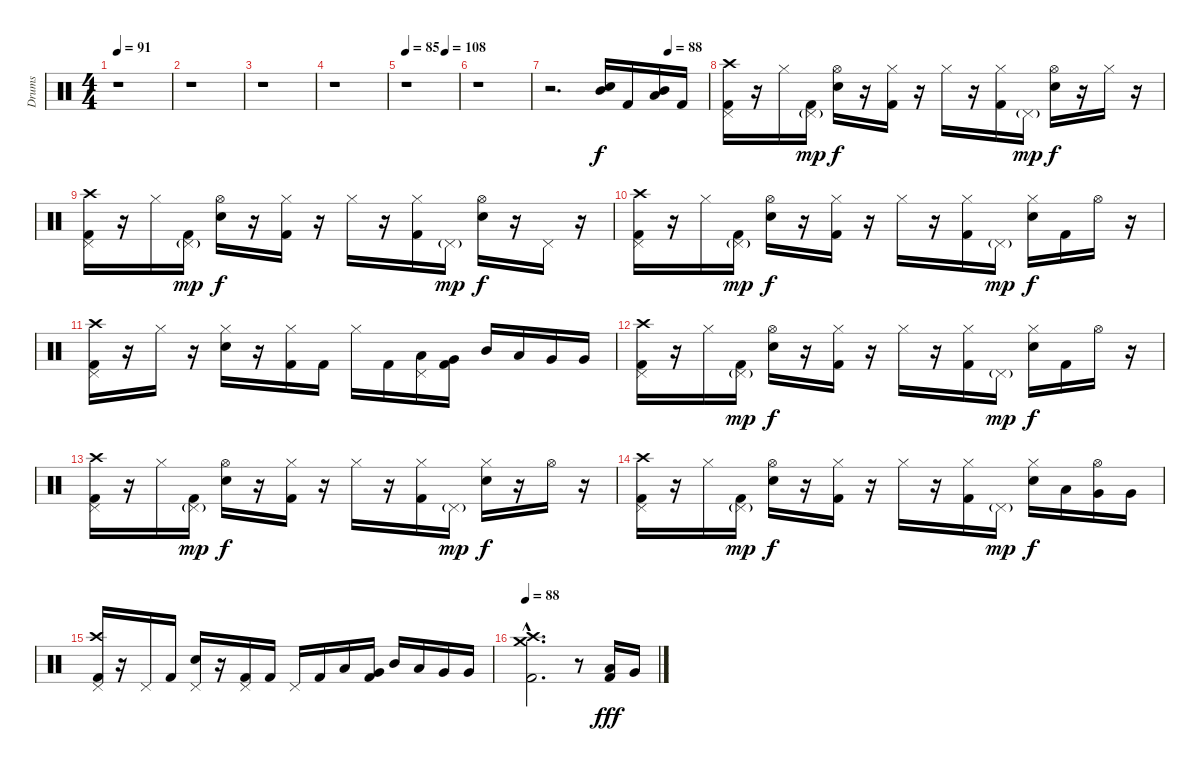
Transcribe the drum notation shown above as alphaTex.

\track ("Drums" "Drums") {instrument percussion}
\staff {score}
\articulation defaults
\ts (4 4)
\tempo 91
\tempo 108
\tempo 91
\clef neutral
\ks c
r.1{dy f} |
r.1 |
r.1 |
r.1 |
\tempo 85
\tempo (108 0.75)
r.1 |
r.1 |
\tempo (88 0.75)
r.2{d} ("Electric Snare (hit)" "Mid Tom (hit)").16 "Kick (hit) 2".16 ("Low Tom (hit)" "Mid Tom (hit)").16 "Kick (hit) 2".16 |
("Crash high (hit)" "Pedal Hi-Hat (hit)" "Kick (hit) 2").16 r.16 "Hi-Hat (closed)".16 ("Pedal Hi-Hat (hit)"{g} "Kick (hit) 2").16{dy mp} ("Electric Snare (hit)" "Hi-Hat (open)").16{dy f} r.16 ("Hi-Hat (closed)" "Kick (hit) 2").16 r.16 "Hi-Hat (closed)".16 r.16 ("Hi-Hat (closed)" "Kick (hit) 2").16 "Pedal Hi-Hat (hit)"{g}.16{dy mp} ("Electric Snare (hit)" "Hi-Hat (open)").16{dy f} r.16 "Hi-Hat (closed)".16 r.16 |
("Crash high (hit)" "Pedal Hi-Hat (hit)" "Kick (hit) 2").16 r.16 "Hi-Hat (closed)".16 ("Pedal Hi-Hat (hit)"{g} "Kick (hit) 2").16{dy mp} ("Electric Snare (hit)" "Hi-Hat (open)").16{dy f} r.16 ("Hi-Hat (closed)" "Kick (hit) 2").16 r.16 "Hi-Hat (closed)".16 r.16 ("Hi-Hat (closed)" "Kick (hit) 2").16 "Pedal Hi-Hat (hit)"{g}.16{dy mp} ("Electric Snare (hit)" "Hi-Hat (open)").16{dy f} r.16 "Pedal Hi-Hat (hit)".16 r.16 |
("Crash high (hit)" "Pedal Hi-Hat (hit)" "Kick (hit) 2").16 r.16 "Hi-Hat (closed)".16 ("Pedal Hi-Hat (hit)"{g} "Kick (hit) 2").16{dy mp} ("Electric Snare (hit)" "Hi-Hat (open)").16{dy f} r.16 ("Hi-Hat (closed)" "Kick (hit) 2").16 r.16 "Hi-Hat (closed)".16 r.16 ("Hi-Hat (closed)" "Kick (hit) 2").16 "Pedal Hi-Hat (hit)"{g}.16{dy mp} ("Electric Snare (hit)" "Hi-Hat (closed)").16{dy f} "Kick (hit) 2".16 "Hi-Hat (open)".16 r.16 |
("Crash high (hit)" "Pedal Hi-Hat (hit)" "Kick (hit) 2").16 r.16 "Hi-Hat (closed)".16 r.16 ("Electric Snare (hit)" "Hi-Hat (closed)").16 r.16 ("Hi-Hat (closed)" "Kick (hit) 2").16 "Kick (hit) 2".16 "Hi-Hat (closed)".16 "Kick (hit) 2".16 ("Low Tom (hit)" "Pedal Hi-Hat (hit)").16 ("Kick (hit) 2" "Very Low Tom (hit)").16 "Mid Tom (hit)".16 "Low Tom (hit)".16 "Very Low Tom (hit)".16 "Very Low Tom (hit)".16 |
("Crash high (hit)" "Pedal Hi-Hat (hit)" "Kick (hit) 2").16 r.16 "Hi-Hat (closed)".16 ("Pedal Hi-Hat (hit)"{g} "Kick (hit) 2").16{dy mp} ("Electric Snare (hit)" "Hi-Hat (open)").16{dy f} r.16 ("Hi-Hat (closed)" "Kick (hit) 2").16 r.16 "Hi-Hat (closed)".16 r.16 ("Hi-Hat (closed)" "Kick (hit) 2").16 "Pedal Hi-Hat (hit)"{g}.16{dy mp} ("Electric Snare (hit)" "Hi-Hat (closed)").16{dy f} "Kick (hit) 2".16 "Hi-Hat (open)".16 r.16 |
("Crash high (hit)" "Pedal Hi-Hat (hit)" "Kick (hit) 2").16 r.16 "Hi-Hat (closed)".16 ("Pedal Hi-Hat (hit)"{g} "Kick (hit) 2").16{dy mp} ("Electric Snare (hit)" "Hi-Hat (open)").16{dy f} r.16 ("Hi-Hat (closed)" "Kick (hit) 2").16 r.16 "Hi-Hat (closed)".16 r.16 ("Hi-Hat (closed)" "Kick (hit) 2").16 "Pedal Hi-Hat (hit)"{g}.16{dy mp} ("Electric Snare (hit)" "Hi-Hat (closed)").16{dy f} r.16 "Hi-Hat (open)".16 r.16 |
("Crash high (hit)" "Pedal Hi-Hat (hit)" "Kick (hit) 2").16 r.16 "Hi-Hat (closed)".16 ("Pedal Hi-Hat (hit)"{g} "Kick (hit) 2").16{dy mp} ("Electric Snare (hit)" "Hi-Hat (open)").16{dy f} r.16 ("Hi-Hat (closed)" "Kick (hit) 2").16 r.16 "Hi-Hat (closed)".16 r.16 ("Hi-Hat (closed)" "Kick (hit) 2").16 "Pedal Hi-Hat (hit)"{g}.16{dy mp} ("Electric Snare (hit)" "Hi-Hat (closed)").16{dy f} "Low Tom (hit)".16 ("Hi-Hat (open)" "Very Low Tom (hit)").16 "Very Low Tom (hit)".16 |
("Crash high (hit)" "Pedal Hi-Hat (hit)" "Kick (hit) 2").16 r.16 "Pedal Hi-Hat (hit)".16 "Kick (hit) 2".16 ("Electric Snare (hit)" "Pedal Hi-Hat (hit)").16 r.16 ("Pedal Hi-Hat (hit)" "Kick (hit) 2").16 "Kick (hit) 2".16 "Pedal Hi-Hat (hit)".16 "Kick (hit) 2".16 "Low Tom (hit)".16 ("Kick (hit) 2" "Very Low Tom (hit)").16 "Mid Tom (hit)".16 "Low Tom (hit)".16 "Very Low Tom (hit)".16 "Very Low Tom (hit)".16 |
\tempo 88
("Crash high (hit)"{hac} "Crash medium (hit)"{hac} "Kick (hit) 2"{hac}).2{d} r.8 ("Kick (hit) 2" "Low Tom (hit)").16{dy fff} "Very Low Tom (hit)".16
